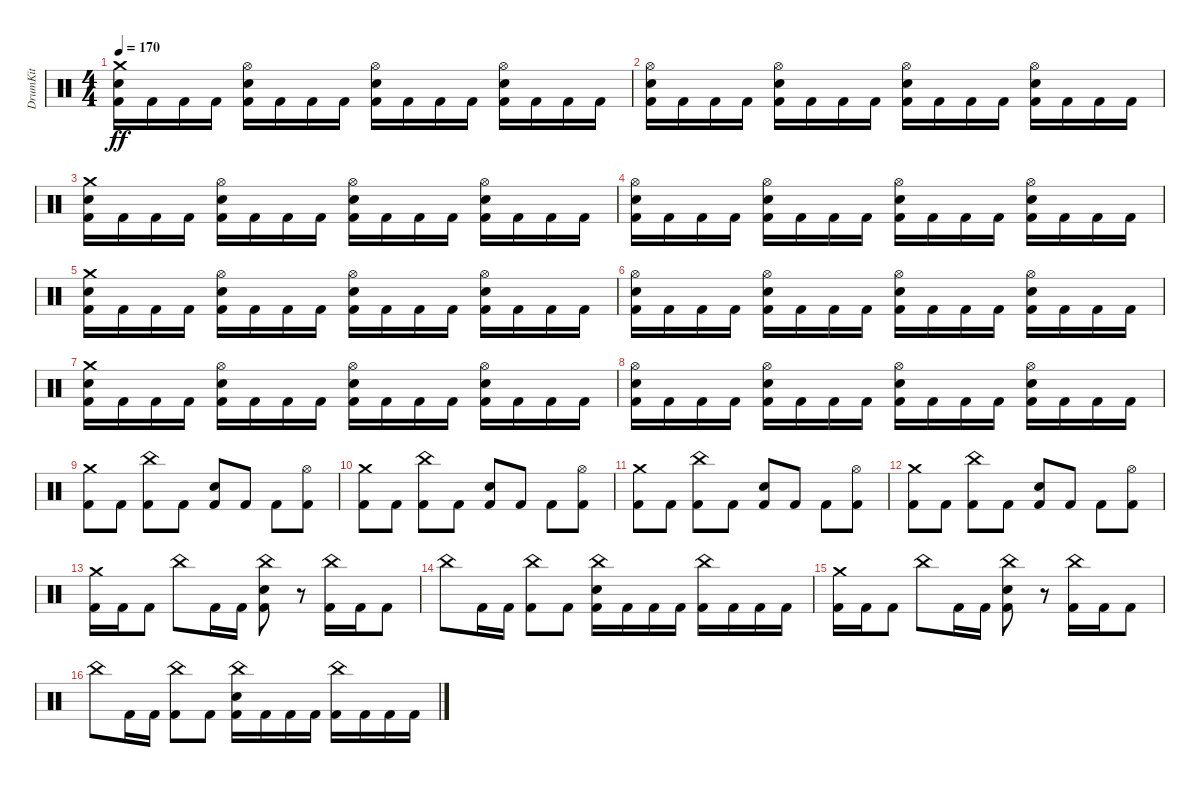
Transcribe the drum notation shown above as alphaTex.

\track ("DrumKit" "DrumKit") {instrument percussion}
\staff {score}
\articulation defaults
\ts (4 4)
\tempo 170
\clef neutral
\ks c
("Kick (hit) 2" "Snare (hit) 2" "Crash medium (hit)").16{dy ff} "Kick (hit) 2".16 "Kick (hit) 2".16 "Kick (hit) 2".16 ("Kick (hit) 2" "Snare (hit) 2" "Hi-Hat (open)").16 "Kick (hit) 2".16 "Kick (hit) 2".16 "Kick (hit) 2".16 ("Kick (hit) 2" "Snare (hit) 2" "Hi-Hat (open)").16 "Kick (hit) 2".16 "Kick (hit) 2".16 "Kick (hit) 2".16 ("Kick (hit) 2" "Snare (hit) 2" "Hi-Hat (open)").16 "Kick (hit) 2".16 "Kick (hit) 2".16 "Kick (hit) 2".16 |
("Kick (hit) 2" "Snare (hit) 2" "Hi-Hat (open)").16 "Kick (hit) 2".16 "Kick (hit) 2".16 "Kick (hit) 2".16 ("Kick (hit) 2" "Snare (hit) 2" "Hi-Hat (open)").16 "Kick (hit) 2".16 "Kick (hit) 2".16 "Kick (hit) 2".16 ("Kick (hit) 2" "Snare (hit) 2" "Hi-Hat (open)").16 "Kick (hit) 2".16 "Kick (hit) 2".16 "Kick (hit) 2".16 ("Kick (hit) 2" "Snare (hit) 2" "Hi-Hat (open)").16 "Kick (hit) 2".16 "Kick (hit) 2".16 "Kick (hit) 2".16 |
("Kick (hit) 2" "Snare (hit) 2" "Crash medium (hit)").16 "Kick (hit) 2".16 "Kick (hit) 2".16 "Kick (hit) 2".16 ("Kick (hit) 2" "Snare (hit) 2" "Hi-Hat (open)").16 "Kick (hit) 2".16 "Kick (hit) 2".16 "Kick (hit) 2".16 ("Kick (hit) 2" "Snare (hit) 2" "Hi-Hat (open)").16 "Kick (hit) 2".16 "Kick (hit) 2".16 "Kick (hit) 2".16 ("Kick (hit) 2" "Snare (hit) 2" "Hi-Hat (open)").16 "Kick (hit) 2".16 "Kick (hit) 2".16 "Kick (hit) 2".16 |
("Kick (hit) 2" "Snare (hit) 2" "Hi-Hat (open)").16 "Kick (hit) 2".16 "Kick (hit) 2".16 "Kick (hit) 2".16 ("Kick (hit) 2" "Snare (hit) 2" "Hi-Hat (open)").16 "Kick (hit) 2".16 "Kick (hit) 2".16 "Kick (hit) 2".16 ("Kick (hit) 2" "Snare (hit) 2" "Hi-Hat (open)").16 "Kick (hit) 2".16 "Kick (hit) 2".16 "Kick (hit) 2".16 ("Kick (hit) 2" "Snare (hit) 2" "Hi-Hat (open)").16 "Kick (hit) 2".16 "Kick (hit) 2".16 "Kick (hit) 2".16 |
("Kick (hit) 2" "Snare (hit) 2" "Crash medium (hit)").16 "Kick (hit) 2".16 "Kick (hit) 2".16 "Kick (hit) 2".16 ("Kick (hit) 2" "Snare (hit) 2" "Hi-Hat (open)").16 "Kick (hit) 2".16 "Kick (hit) 2".16 "Kick (hit) 2".16 ("Kick (hit) 2" "Snare (hit) 2" "Hi-Hat (open)").16 "Kick (hit) 2".16 "Kick (hit) 2".16 "Kick (hit) 2".16 ("Kick (hit) 2" "Snare (hit) 2" "Hi-Hat (open)").16 "Kick (hit) 2".16 "Kick (hit) 2".16 "Kick (hit) 2".16 |
("Kick (hit) 2" "Snare (hit) 2" "Hi-Hat (open)").16 "Kick (hit) 2".16 "Kick (hit) 2".16 "Kick (hit) 2".16 ("Kick (hit) 2" "Snare (hit) 2" "Hi-Hat (open)").16 "Kick (hit) 2".16 "Kick (hit) 2".16 "Kick (hit) 2".16 ("Kick (hit) 2" "Snare (hit) 2" "Hi-Hat (open)").16 "Kick (hit) 2".16 "Kick (hit) 2".16 "Kick (hit) 2".16 ("Kick (hit) 2" "Snare (hit) 2" "Hi-Hat (open)").16 "Kick (hit) 2".16 "Kick (hit) 2".16 "Kick (hit) 2".16 |
("Kick (hit) 2" "Snare (hit) 2" "Crash medium (hit)").16 "Kick (hit) 2".16 "Kick (hit) 2".16 "Kick (hit) 2".16 ("Kick (hit) 2" "Snare (hit) 2" "Hi-Hat (open)").16 "Kick (hit) 2".16 "Kick (hit) 2".16 "Kick (hit) 2".16 ("Kick (hit) 2" "Snare (hit) 2" "Hi-Hat (open)").16 "Kick (hit) 2".16 "Kick (hit) 2".16 "Kick (hit) 2".16 ("Kick (hit) 2" "Snare (hit) 2" "Hi-Hat (open)").16 "Kick (hit) 2".16 "Kick (hit) 2".16 "Kick (hit) 2".16 |
("Kick (hit) 2" "Snare (hit) 2" "Hi-Hat (open)").16 "Kick (hit) 2".16 "Kick (hit) 2".16 "Kick (hit) 2".16 ("Kick (hit) 2" "Snare (hit) 2" "Hi-Hat (open)").16 "Kick (hit) 2".16 "Kick (hit) 2".16 "Kick (hit) 2".16 ("Kick (hit) 2" "Snare (hit) 2" "Hi-Hat (open)").16 "Kick (hit) 2".16 "Kick (hit) 2".16 "Kick (hit) 2".16 ("Kick (hit) 2" "Snare (hit) 2" "Hi-Hat (open)").16 "Kick (hit) 2".16 "Kick (hit) 2".16 "Kick (hit) 2".16 |
("Kick (hit) 2" "Crash medium (hit)").8 "Kick (hit) 2".8 ("Kick (hit) 2" "China (hit)").8 "Kick (hit) 2".8 ("Kick (hit) 2" "Snare (hit) 2").8 "Kick (hit) 2".8 "Kick (hit) 2".8 ("Kick (hit) 2" "Hi-Hat (open)").8 |
("Kick (hit) 2" "Crash medium (hit)").8 "Kick (hit) 2".8 ("Kick (hit) 2" "China (hit)").8 "Kick (hit) 2".8 ("Kick (hit) 2" "Snare (hit) 2").8 "Kick (hit) 2".8 "Kick (hit) 2".8 ("Kick (hit) 2" "Hi-Hat (open)").8 |
("Kick (hit) 2" "Crash medium (hit)").8 "Kick (hit) 2".8 ("Kick (hit) 2" "China (hit)").8 "Kick (hit) 2".8 ("Kick (hit) 2" "Snare (hit) 2").8 "Kick (hit) 2".8 "Kick (hit) 2".8 ("Kick (hit) 2" "Hi-Hat (open)").8 |
("Kick (hit) 2" "Crash medium (hit)").8 "Kick (hit) 2".8 ("Kick (hit) 2" "China (hit)").8 "Kick (hit) 2".8 ("Kick (hit) 2" "Snare (hit) 2").8 "Kick (hit) 2".8 "Kick (hit) 2".8 ("Kick (hit) 2" "Hi-Hat (open)").8 |
("Kick (hit) 2" "Crash medium (hit)").16 "Kick (hit) 2".16 "Kick (hit) 2".8 "China (hit)".8 "Kick (hit) 2".16 "Kick (hit) 2".16 ("Kick (hit) 2" "Snare (hit) 2" "China (hit)").8 r.8 ("Kick (hit) 2" "China (hit)").16 "Kick (hit) 2".16 "Kick (hit) 2".8 |
"China (hit)".8 "Kick (hit) 2".16 "Kick (hit) 2".16 ("Kick (hit) 2" "China (hit)").8 "Kick (hit) 2".8 ("Kick (hit) 2" "Snare (hit) 2" "China (hit)").16 "Kick (hit) 2".16 "Kick (hit) 2".16 "Kick (hit) 2".16 ("Kick (hit) 2" "China (hit)").16 "Kick (hit) 2".16 "Kick (hit) 2".16 "Kick (hit) 2".16 |
("Kick (hit) 2" "Crash medium (hit)").16 "Kick (hit) 2".16 "Kick (hit) 2".8 "China (hit)".8 "Kick (hit) 2".16 "Kick (hit) 2".16 ("Kick (hit) 2" "Snare (hit) 2" "China (hit)").8 r.8 ("Kick (hit) 2" "China (hit)").16 "Kick (hit) 2".16 "Kick (hit) 2".8 |
"China (hit)".8 "Kick (hit) 2".16 "Kick (hit) 2".16 ("Kick (hit) 2" "China (hit)").8 "Kick (hit) 2".8 ("Kick (hit) 2" "Snare (hit) 2" "China (hit)").16 "Kick (hit) 2".16 "Kick (hit) 2".16 "Kick (hit) 2".16 ("Kick (hit) 2" "China (hit)").16 "Kick (hit) 2".16 "Kick (hit) 2".16 "Kick (hit) 2".16
